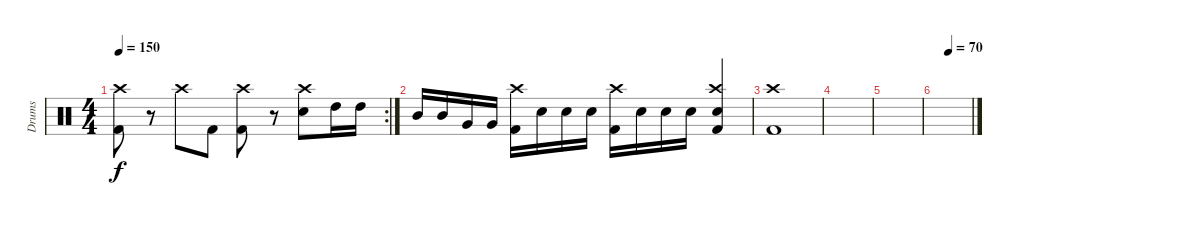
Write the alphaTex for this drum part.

\track ("Drums" "Drums") {instrument percussion}
\staff {score}
\articulation defaults
\rc 2
\ts (4 4)
\tempo 150
\clef neutral
\ks c
("Kick (hit) 2" "Crash high (hit)").8{dy f} r.8 "Crash high (hit)".8 "Kick (hit) 2".8 ("Kick (hit) 2" "Crash high (hit)").8 r.8 ("Crash high (hit)" "Snare (hit) 2").8 "High Tom (hit)".16 "High Tom (hit)".16 |
"Mid Tom (hit)".16 "Mid Tom (hit)".16 "Very Low Tom (hit)".16 "Very Low Tom (hit)".16 ("Kick (hit) 2" "Crash high (hit)").16 "Snare (hit) 2".16 "Snare (hit) 2".16 "Snare (hit) 2".16 ("Kick (hit) 2" "Crash high (hit)").16 "Snare (hit) 2".16 "Snare (hit) 2".16 "Snare (hit) 2".16 ("Kick (hit) 2" "Crash high (hit)" "Snare (hit) 2").4 |
("Kick (hit) 2" "Crash high (hit)").1 |
|
|
\tempo (70 0.375)
